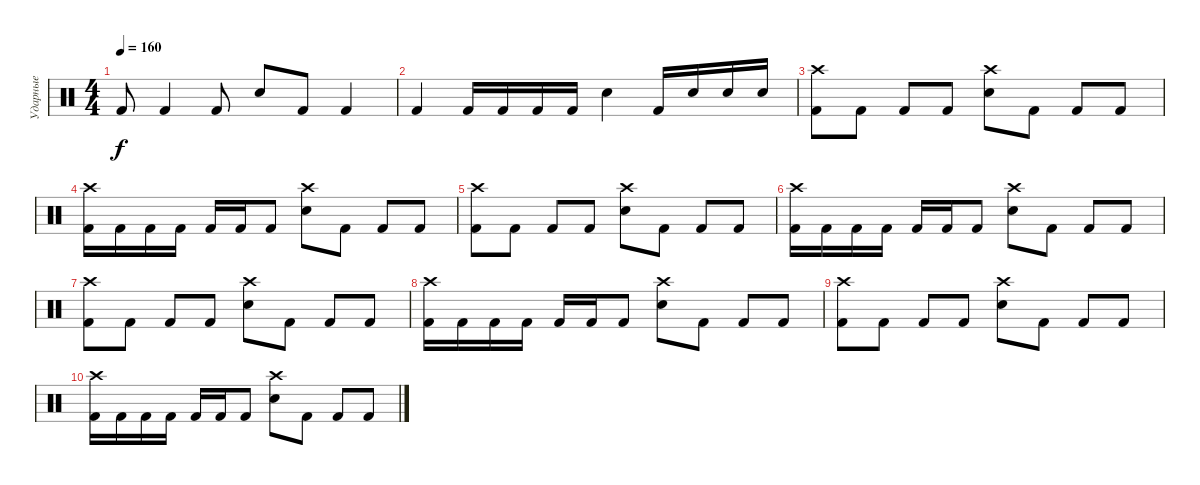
\track ("Ударные" "Ударные") {instrument percussion}
\staff {score}
\articulation defaults
\ts (4 4)
\tempo 160
\clef neutral
\ks c "Kick (hit) 2".8{dy f} "Kick (hit) 2".4 "Kick (hit) 2".8 "Electric Snare (hit)".8 "Kick (hit) 2".8 "Kick (hit) 2".4
|
"Kick (hit) 2".4 "Kick (hit) 2".16 "Kick (hit) 2".16 "Kick (hit) 2".16 "Kick (hit) 2".16 "Electric Snare (hit)".4 "Kick (hit) 2".16 "Electric Snare (hit)".16 "Electric Snare (hit)".16 "Electric Snare (hit)".16 |
("Crash high (hit)" "Kick (hit) 2").8 "Kick (hit) 2".8 "Kick (hit) 2".8 "Kick (hit) 2".8 ("Crash high (hit)" "Electric Snare (hit)").8 "Kick (hit) 2".8 "Kick (hit) 2".8 "Kick (hit) 2".8 |
("Crash high (hit)" "Kick (hit) 2").16 "Kick (hit) 2".16 "Kick (hit) 2".16 "Kick (hit) 2".16 "Kick (hit) 2".16 "Kick (hit) 2".16 "Kick (hit) 2".8 ("Crash high (hit)" "Electric Snare (hit)").8 "Kick (hit) 2".8 "Kick (hit) 2".8 "Kick (hit) 2".8 |
("Crash high (hit)" "Kick (hit) 2").8 "Kick (hit) 2".8 "Kick (hit) 2".8 "Kick (hit) 2".8 ("Crash high (hit)" "Electric Snare (hit)").8 "Kick (hit) 2".8 "Kick (hit) 2".8 "Kick (hit) 2".8 |
("Crash high (hit)" "Kick (hit) 2").16 "Kick (hit) 2".16 "Kick (hit) 2".16 "Kick (hit) 2".16 "Kick (hit) 2".16 "Kick (hit) 2".16 "Kick (hit) 2".8 ("Crash high (hit)" "Electric Snare (hit)").8 "Kick (hit) 2".8 "Kick (hit) 2".8 "Kick (hit) 2".8 |
("Crash high (hit)" "Kick (hit) 2").8 "Kick (hit) 2".8 "Kick (hit) 2".8 "Kick (hit) 2".8 ("Crash high (hit)" "Electric Snare (hit)").8 "Kick (hit) 2".8 "Kick (hit) 2".8 "Kick (hit) 2".8 |
("Crash high (hit)" "Kick (hit) 2").16 "Kick (hit) 2".16 "Kick (hit) 2".16 "Kick (hit) 2".16 "Kick (hit) 2".16 "Kick (hit) 2".16 "Kick (hit) 2".8 ("Crash high (hit)" "Electric Snare (hit)").8 "Kick (hit) 2".8 "Kick (hit) 2".8 "Kick (hit) 2".8 |
("Crash high (hit)" "Kick (hit) 2").8 "Kick (hit) 2".8 "Kick (hit) 2".8 "Kick (hit) 2".8 ("Crash high (hit)" "Electric Snare (hit)").8 "Kick (hit) 2".8 "Kick (hit) 2".8 "Kick (hit) 2".8 |
("Crash high (hit)" "Kick (hit) 2").16 "Kick (hit) 2".16 "Kick (hit) 2".16 "Kick (hit) 2".16 "Kick (hit) 2".16 "Kick (hit) 2".16 "Kick (hit) 2".8 ("Crash high (hit)" "Electric Snare (hit)").8 "Kick (hit) 2".8 "Kick (hit) 2".8 "Kick (hit) 2".8
